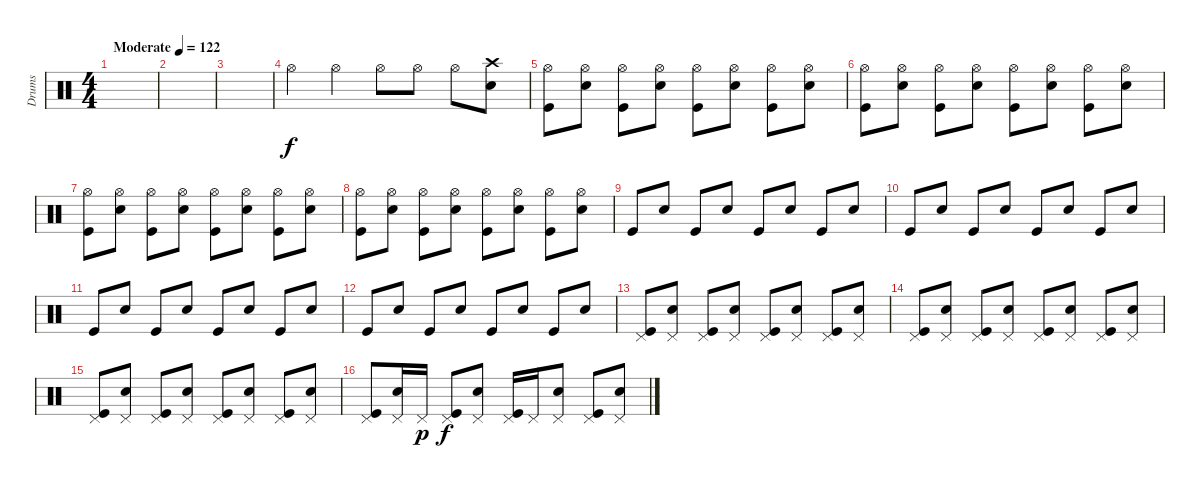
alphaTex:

\track ("Drums" "Drums") {instrument percussion}
\staff {score}
\articulation defaults
\ts (4 4)
\tempo (122 "Moderate")
\clef neutral
\ks c
|
|
|
"Hi-Hat (open)".4 "Hi-Hat (open)".4 "Hi-Hat (open)".8 "Hi-Hat (open)".8 "Hi-Hat (open)".8 ("Crash high (hit)" "Snare (hit) 2").8 |
("Hi-Hat (open)" "Kick (hit)").8 ("Hi-Hat (open)" "Snare (hit) 2").8 ("Hi-Hat (open)" "Kick (hit)").8 ("Hi-Hat (open)" "Snare (hit) 2").8 ("Hi-Hat (open)" "Kick (hit)").8 ("Hi-Hat (open)" "Snare (hit) 2").8 ("Hi-Hat (open)" "Kick (hit)").8 ("Hi-Hat (open)" "Snare (hit) 2").8 |
("Hi-Hat (open)" "Kick (hit)").8 ("Hi-Hat (open)" "Snare (hit) 2").8 ("Hi-Hat (open)" "Kick (hit)").8 ("Hi-Hat (open)" "Snare (hit) 2").8 ("Hi-Hat (open)" "Kick (hit)").8 ("Hi-Hat (open)" "Snare (hit) 2").8 ("Hi-Hat (open)" "Kick (hit)").8 ("Hi-Hat (open)" "Snare (hit) 2").8 |
("Hi-Hat (open)" "Kick (hit)").8 ("Hi-Hat (open)" "Snare (hit) 2").8 ("Hi-Hat (open)" "Kick (hit)").8 ("Hi-Hat (open)" "Snare (hit) 2").8 ("Hi-Hat (open)" "Kick (hit)").8 ("Hi-Hat (open)" "Snare (hit) 2").8 ("Hi-Hat (open)" "Kick (hit)").8 ("Hi-Hat (open)" "Snare (hit) 2").8 |
("Hi-Hat (open)" "Kick (hit)").8 ("Hi-Hat (open)" "Snare (hit) 2").8 ("Hi-Hat (open)" "Kick (hit)").8 ("Hi-Hat (open)" "Snare (hit) 2").8 ("Hi-Hat (open)" "Kick (hit)").8 ("Hi-Hat (open)" "Snare (hit) 2").8 ("Hi-Hat (open)" "Kick (hit)").8 ("Hi-Hat (open)" "Snare (hit) 2").8 |
"Kick (hit)".8 "Snare (hit) 2".8 "Kick (hit)".8 "Snare (hit) 2".8 "Kick (hit)".8 "Snare (hit) 2".8 "Kick (hit)".8 "Snare (hit) 2".8 |
"Kick (hit)".8 "Snare (hit) 2".8 "Kick (hit)".8 "Snare (hit) 2".8 "Kick (hit)".8 "Snare (hit) 2".8 "Kick (hit)".8 "Snare (hit) 2".8 |
"Kick (hit)".8 "Snare (hit) 2".8 "Kick (hit)".8 "Snare (hit) 2".8 "Kick (hit)".8 "Snare (hit) 2".8 "Kick (hit)".8 "Snare (hit) 2".8 |
"Kick (hit)".8 "Snare (hit) 2".8 "Kick (hit)".8 "Snare (hit) 2".8 "Kick (hit)".8 "Snare (hit) 2".8 "Kick (hit)".8 "Snare (hit) 2".8 |
("Pedal Hi-Hat (hit)" "Kick (hit)").8 ("Pedal Hi-Hat (hit)" "Snare (hit) 2").8 ("Pedal Hi-Hat (hit)" "Kick (hit)").8 ("Pedal Hi-Hat (hit)" "Snare (hit) 2").8 ("Pedal Hi-Hat (hit)" "Kick (hit)").8 ("Pedal Hi-Hat (hit)" "Snare (hit) 2").8 ("Pedal Hi-Hat (hit)" "Kick (hit)").8 ("Pedal Hi-Hat (hit)" "Snare (hit) 2").8 |
("Pedal Hi-Hat (hit)" "Kick (hit)").8 ("Pedal Hi-Hat (hit)" "Snare (hit) 2").8 ("Pedal Hi-Hat (hit)" "Kick (hit)").8 ("Pedal Hi-Hat (hit)" "Snare (hit) 2").8 ("Pedal Hi-Hat (hit)" "Kick (hit)").8 ("Pedal Hi-Hat (hit)" "Snare (hit) 2").8 ("Pedal Hi-Hat (hit)" "Kick (hit)").8 ("Pedal Hi-Hat (hit)" "Snare (hit) 2").8 |
("Pedal Hi-Hat (hit)" "Kick (hit)").8 ("Pedal Hi-Hat (hit)" "Snare (hit) 2").8 ("Pedal Hi-Hat (hit)" "Kick (hit)").8 ("Pedal Hi-Hat (hit)" "Snare (hit) 2").8 ("Pedal Hi-Hat (hit)" "Kick (hit)").8 ("Pedal Hi-Hat (hit)" "Snare (hit) 2").8 ("Pedal Hi-Hat (hit)" "Kick (hit)").8 ("Pedal Hi-Hat (hit)" "Snare (hit) 2").8 |
("Pedal Hi-Hat (hit)" "Kick (hit)").8 ("Pedal Hi-Hat (hit)" "Snare (hit) 2").16 "Pedal Hi-Hat (hit)".16{dy p} ("Pedal Hi-Hat (hit)" "Kick (hit)").8{dy f} ("Pedal Hi-Hat (hit)" "Snare (hit) 2").8 ("Pedal Hi-Hat (hit)" "Kick (hit)").16 "Pedal Hi-Hat (hit)".16 ("Pedal Hi-Hat (hit)" "Snare (hit) 2").8 ("Pedal Hi-Hat (hit)" "Kick (hit)").8 ("Pedal Hi-Hat (hit)" "Snare (hit) 2").8
